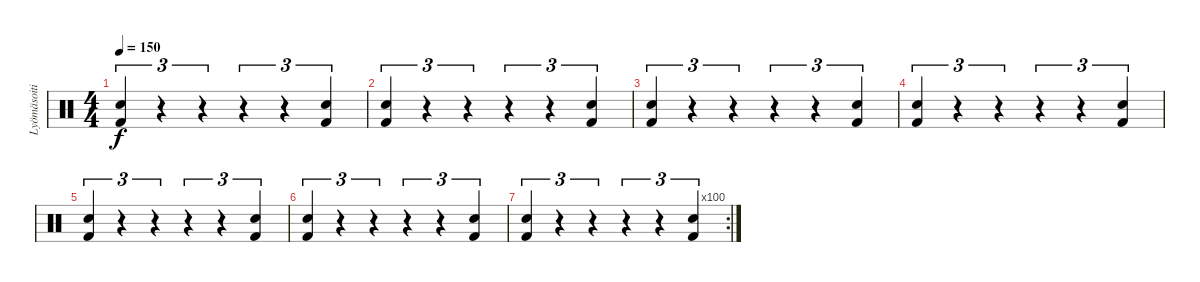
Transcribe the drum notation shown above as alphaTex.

\track ("Lyömäsoitin" "Lyömäsoiti") {instrument percussion}
\staff {score}
\articulation defaults
\ts (4 4)
\tempo 150
\clef neutral
\ks c
("Snare (hit) 2" "Kick (hit) 2").4{tu (3 2) dy f} r.4{tu (3 2)} r.4{tu (3 2)} r.4{tu (3 2)} r.4{tu (3 2)} ("Snare (hit) 2" "Kick (hit) 2").4{tu (3 2)} |
("Snare (hit) 2" "Kick (hit) 2").4{tu (3 2)} r.4{tu (3 2)} r.4{tu (3 2)} r.4{tu (3 2)} r.4{tu (3 2)} ("Snare (hit) 2" "Kick (hit) 2").4{tu (3 2)} |
("Snare (hit) 2" "Kick (hit) 2").4{tu (3 2)} r.4{tu (3 2)} r.4{tu (3 2)} r.4{tu (3 2)} r.4{tu (3 2)} ("Snare (hit) 2" "Kick (hit) 2").4{tu (3 2)} |
("Snare (hit) 2" "Kick (hit) 2").4{tu (3 2)} r.4{tu (3 2)} r.4{tu (3 2)} r.4{tu (3 2)} r.4{tu (3 2)} ("Snare (hit) 2" "Kick (hit) 2").4{tu (3 2)} |
("Snare (hit) 2" "Kick (hit) 2").4{tu (3 2)} r.4{tu (3 2)} r.4{tu (3 2)} r.4{tu (3 2)} r.4{tu (3 2)} ("Snare (hit) 2" "Kick (hit) 2").4{tu (3 2)} |
("Snare (hit) 2" "Kick (hit) 2").4{tu (3 2)} r.4{tu (3 2)} r.4{tu (3 2)} r.4{tu (3 2)} r.4{tu (3 2)} ("Snare (hit) 2" "Kick (hit) 2").4{tu (3 2)} |
\rc 100
("Snare (hit) 2" "Kick (hit) 2").4{tu (3 2)} r.4{tu (3 2)} r.4{tu (3 2)} r.4{tu (3 2)} r.4{tu (3 2)} ("Snare (hit) 2" "Kick (hit) 2").4{tu (3 2)}
